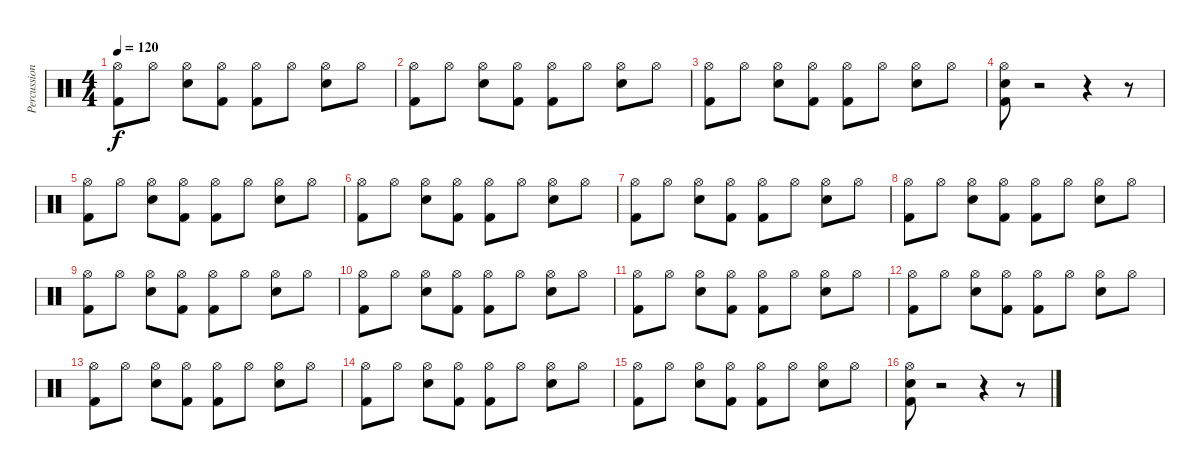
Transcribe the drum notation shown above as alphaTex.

\track ("Percussion" "Percussion") {instrument percussion}
\staff {score}
\articulation defaults
\ts (4 4)
\tempo 120
\clef neutral
\ks c
("Hi-Hat (open)" "Kick (hit) 2").8{dy f} "Hi-Hat (open)".8 ("Hi-Hat (open)" "Snare (hit) 2").8 ("Hi-Hat (open)" "Kick (hit) 2").8 ("Hi-Hat (open)" "Kick (hit) 2").8 "Hi-Hat (open)".8 ("Hi-Hat (open)" "Snare (hit) 2").8 "Hi-Hat (open)".8 |
("Hi-Hat (open)" "Kick (hit) 2").8 "Hi-Hat (open)".8 ("Hi-Hat (open)" "Snare (hit) 2").8 ("Hi-Hat (open)" "Kick (hit) 2").8 ("Hi-Hat (open)" "Kick (hit) 2").8 "Hi-Hat (open)".8 ("Hi-Hat (open)" "Snare (hit) 2").8 "Hi-Hat (open)".8 |
("Hi-Hat (open)" "Kick (hit) 2").8 "Hi-Hat (open)".8 ("Hi-Hat (open)" "Snare (hit) 2").8 ("Hi-Hat (open)" "Kick (hit) 2").8 ("Hi-Hat (open)" "Kick (hit) 2").8 "Hi-Hat (open)".8 ("Hi-Hat (open)" "Snare (hit) 2").8 "Hi-Hat (open)".8 |
("Hi-Hat (open)" "Snare (hit) 2" "Kick (hit) 2").8 r.2 r.4 r.8 |
("Hi-Hat (open)" "Kick (hit) 2").8 "Hi-Hat (open)".8 ("Hi-Hat (open)" "Snare (hit) 2").8 ("Hi-Hat (open)" "Kick (hit) 2").8 ("Hi-Hat (open)" "Kick (hit) 2").8 "Hi-Hat (open)".8 ("Hi-Hat (open)" "Snare (hit) 2").8 "Hi-Hat (open)".8 |
("Hi-Hat (open)" "Kick (hit) 2").8 "Hi-Hat (open)".8 ("Hi-Hat (open)" "Snare (hit) 2").8 ("Hi-Hat (open)" "Kick (hit) 2").8 ("Hi-Hat (open)" "Kick (hit) 2").8 "Hi-Hat (open)".8 ("Hi-Hat (open)" "Snare (hit) 2").8 "Hi-Hat (open)".8 |
("Hi-Hat (open)" "Kick (hit) 2").8 "Hi-Hat (open)".8 ("Hi-Hat (open)" "Snare (hit) 2").8 ("Hi-Hat (open)" "Kick (hit) 2").8 ("Hi-Hat (open)" "Kick (hit) 2").8 "Hi-Hat (open)".8 ("Hi-Hat (open)" "Snare (hit) 2").8 "Hi-Hat (open)".8 |
("Hi-Hat (open)" "Kick (hit) 2").8 "Hi-Hat (open)".8 ("Hi-Hat (open)" "Snare (hit) 2").8 ("Hi-Hat (open)" "Kick (hit) 2").8 ("Hi-Hat (open)" "Kick (hit) 2").8 "Hi-Hat (open)".8 ("Hi-Hat (open)" "Snare (hit) 2").8 "Hi-Hat (open)".8 |
("Hi-Hat (open)" "Kick (hit) 2").8 "Hi-Hat (open)".8 ("Hi-Hat (open)" "Snare (hit) 2").8 ("Hi-Hat (open)" "Kick (hit) 2").8 ("Hi-Hat (open)" "Kick (hit) 2").8 "Hi-Hat (open)".8 ("Hi-Hat (open)" "Snare (hit) 2").8 "Hi-Hat (open)".8 |
("Hi-Hat (open)" "Kick (hit) 2").8 "Hi-Hat (open)".8 ("Hi-Hat (open)" "Snare (hit) 2").8 ("Hi-Hat (open)" "Kick (hit) 2").8 ("Hi-Hat (open)" "Kick (hit) 2").8 "Hi-Hat (open)".8 ("Hi-Hat (open)" "Snare (hit) 2").8 "Hi-Hat (open)".8 |
("Hi-Hat (open)" "Kick (hit) 2").8 "Hi-Hat (open)".8 ("Hi-Hat (open)" "Snare (hit) 2").8 ("Hi-Hat (open)" "Kick (hit) 2").8 ("Hi-Hat (open)" "Kick (hit) 2").8 "Hi-Hat (open)".8 ("Hi-Hat (open)" "Snare (hit) 2").8 "Hi-Hat (open)".8 |
("Hi-Hat (open)" "Kick (hit) 2").8 "Hi-Hat (open)".8 ("Hi-Hat (open)" "Snare (hit) 2").8 ("Hi-Hat (open)" "Kick (hit) 2").8 ("Hi-Hat (open)" "Kick (hit) 2").8 "Hi-Hat (open)".8 ("Hi-Hat (open)" "Snare (hit) 2").8 "Hi-Hat (open)".8 |
("Hi-Hat (open)" "Kick (hit) 2").8 "Hi-Hat (open)".8 ("Hi-Hat (open)" "Snare (hit) 2").8 ("Hi-Hat (open)" "Kick (hit) 2").8 ("Hi-Hat (open)" "Kick (hit) 2").8 "Hi-Hat (open)".8 ("Hi-Hat (open)" "Snare (hit) 2").8 "Hi-Hat (open)".8 |
("Hi-Hat (open)" "Kick (hit) 2").8 "Hi-Hat (open)".8 ("Hi-Hat (open)" "Snare (hit) 2").8 ("Hi-Hat (open)" "Kick (hit) 2").8 ("Hi-Hat (open)" "Kick (hit) 2").8 "Hi-Hat (open)".8 ("Hi-Hat (open)" "Snare (hit) 2").8 "Hi-Hat (open)".8 |
("Hi-Hat (open)" "Kick (hit) 2").8 "Hi-Hat (open)".8 ("Hi-Hat (open)" "Snare (hit) 2").8 ("Hi-Hat (open)" "Kick (hit) 2").8 ("Hi-Hat (open)" "Kick (hit) 2").8 "Hi-Hat (open)".8 ("Hi-Hat (open)" "Snare (hit) 2").8 "Hi-Hat (open)".8 |
("Hi-Hat (open)" "Snare (hit) 2" "Kick (hit) 2").8 r.2 r.4 r.8
